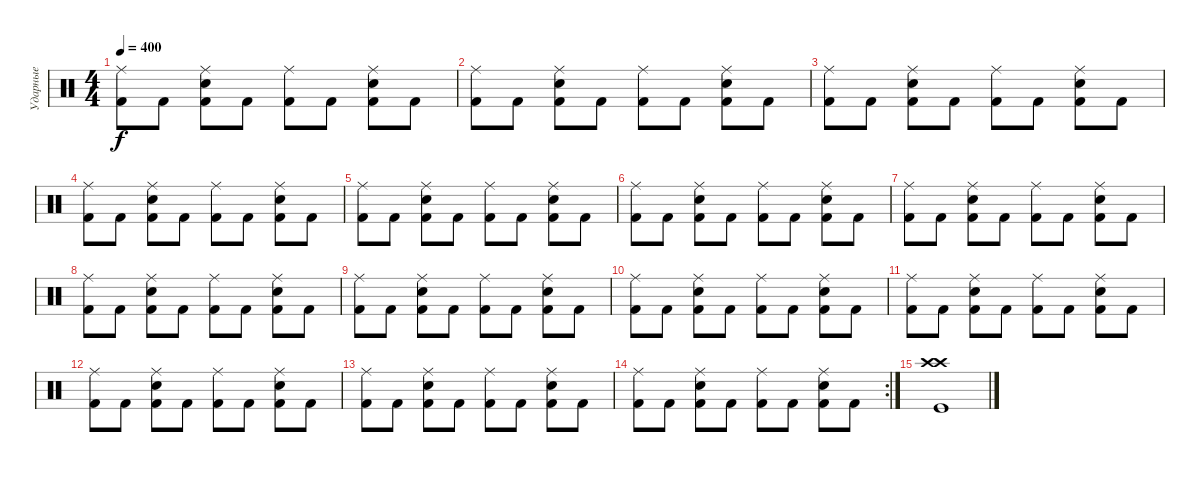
\track ("Ударные" "Ударные") {instrument percussion}
\staff {score}
\articulation defaults
\ts (4 4)
\tempo 400
\clef neutral
\ks c
("Ride (middle)" "Kick (hit) 2").8{dy f} "Kick (hit) 2".8 ("Ride (middle)" "Snare (hit) 2" "Kick (hit) 2").8 "Kick (hit) 2".8 ("Ride (middle)" "Kick (hit) 2").8 "Kick (hit) 2".8 ("Ride (middle)" "Snare (hit) 2" "Kick (hit) 2").8 "Kick (hit) 2".8 |
("Ride (middle)" "Kick (hit) 2").8 "Kick (hit) 2".8 ("Ride (middle)" "Snare (hit) 2" "Kick (hit) 2").8 "Kick (hit) 2".8 ("Ride (middle)" "Kick (hit) 2").8 "Kick (hit) 2".8 ("Ride (middle)" "Snare (hit) 2" "Kick (hit) 2").8 "Kick (hit) 2".8 |
("Ride (middle)" "Kick (hit) 2").8 "Kick (hit) 2".8 ("Ride (middle)" "Snare (hit) 2" "Kick (hit) 2").8 "Kick (hit) 2".8 ("Ride (middle)" "Kick (hit) 2").8 "Kick (hit) 2".8 ("Ride (middle)" "Snare (hit) 2" "Kick (hit) 2").8 "Kick (hit) 2".8 |
("Ride (middle)" "Kick (hit) 2").8 "Kick (hit) 2".8 ("Ride (middle)" "Snare (hit) 2" "Kick (hit) 2").8 "Kick (hit) 2".8 ("Ride (middle)" "Kick (hit) 2").8 "Kick (hit) 2".8 ("Ride (middle)" "Snare (hit) 2" "Kick (hit) 2").8 "Kick (hit) 2".8 |
("Ride (middle)" "Kick (hit) 2").8 "Kick (hit) 2".8 ("Ride (middle)" "Snare (hit) 2" "Kick (hit) 2").8 "Kick (hit) 2".8 ("Ride (middle)" "Kick (hit) 2").8 "Kick (hit) 2".8 ("Ride (middle)" "Snare (hit) 2" "Kick (hit) 2").8 "Kick (hit) 2".8 |
("Ride (middle)" "Kick (hit) 2").8 "Kick (hit) 2".8 ("Ride (middle)" "Snare (hit) 2" "Kick (hit) 2").8 "Kick (hit) 2".8 ("Ride (middle)" "Kick (hit) 2").8 "Kick (hit) 2".8 ("Ride (middle)" "Snare (hit) 2" "Kick (hit) 2").8 "Kick (hit) 2".8 |
("Ride (middle)" "Kick (hit) 2").8 "Kick (hit) 2".8 ("Ride (middle)" "Snare (hit) 2" "Kick (hit) 2").8 "Kick (hit) 2".8 ("Ride (middle)" "Kick (hit) 2").8 "Kick (hit) 2".8 ("Ride (middle)" "Snare (hit) 2" "Kick (hit) 2").8 "Kick (hit) 2".8 |
("Ride (middle)" "Kick (hit) 2").8 "Kick (hit) 2".8 ("Ride (middle)" "Snare (hit) 2" "Kick (hit) 2").8 "Kick (hit) 2".8 ("Ride (middle)" "Kick (hit) 2").8 "Kick (hit) 2".8 ("Ride (middle)" "Snare (hit) 2" "Kick (hit) 2").8 "Kick (hit) 2".8 |
("Ride (middle)" "Kick (hit) 2").8 "Kick (hit) 2".8 ("Ride (middle)" "Snare (hit) 2" "Kick (hit) 2").8 "Kick (hit) 2".8 ("Ride (middle)" "Kick (hit) 2").8 "Kick (hit) 2".8 ("Ride (middle)" "Snare (hit) 2" "Kick (hit) 2").8 "Kick (hit) 2".8 |
("Ride (middle)" "Kick (hit) 2").8 "Kick (hit) 2".8 ("Ride (middle)" "Snare (hit) 2" "Kick (hit) 2").8 "Kick (hit) 2".8 ("Ride (middle)" "Kick (hit) 2").8 "Kick (hit) 2".8 ("Ride (middle)" "Snare (hit) 2" "Kick (hit) 2").8 "Kick (hit) 2".8 |
("Ride (middle)" "Kick (hit) 2").8 "Kick (hit) 2".8 ("Ride (middle)" "Snare (hit) 2" "Kick (hit) 2").8 "Kick (hit) 2".8 ("Ride (middle)" "Kick (hit) 2").8 "Kick (hit) 2".8 ("Ride (middle)" "Snare (hit) 2" "Kick (hit) 2").8 "Kick (hit) 2".8 |
("Ride (middle)" "Kick (hit) 2").8 "Kick (hit) 2".8 ("Ride (middle)" "Snare (hit) 2" "Kick (hit) 2").8 "Kick (hit) 2".8 ("Ride (middle)" "Kick (hit) 2").8 "Kick (hit) 2".8 ("Ride (middle)" "Snare (hit) 2" "Kick (hit) 2").8 "Kick (hit) 2".8 |
("Ride (middle)" "Kick (hit) 2").8 "Kick (hit) 2".8 ("Ride (middle)" "Snare (hit) 2" "Kick (hit) 2").8 "Kick (hit) 2".8 ("Ride (middle)" "Kick (hit) 2").8 "Kick (hit) 2".8 ("Ride (middle)" "Snare (hit) 2" "Kick (hit) 2").8 "Kick (hit) 2".8 |
\rc 2
("Ride (middle)" "Kick (hit) 2").8 "Kick (hit) 2".8 ("Ride (middle)" "Snare (hit) 2" "Kick (hit) 2").8 "Kick (hit) 2".8 ("Ride (middle)" "Kick (hit) 2").8 "Kick (hit) 2".8 ("Ride (middle)" "Snare (hit) 2" "Kick (hit) 2").8 "Kick (hit) 2".8 |
("Crash high (hit)" "Crash high (hit)" "Kick (hit)").1
